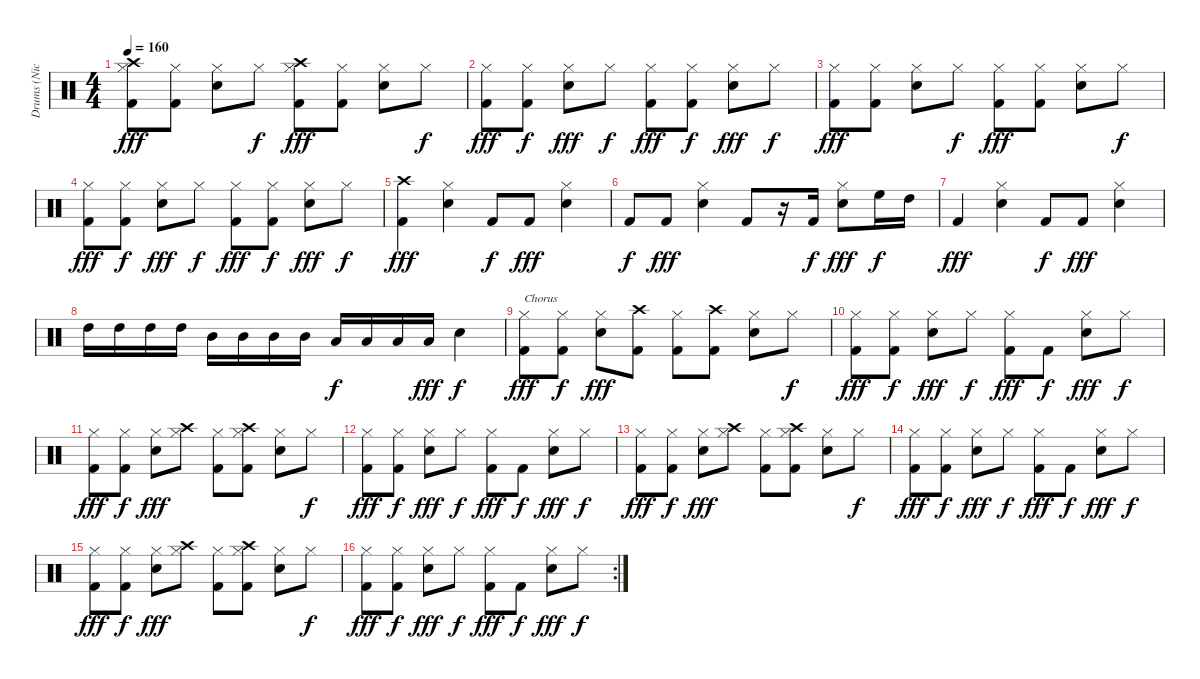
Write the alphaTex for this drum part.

\track ("Drums (Nicko)" "Drums (Nic") {instrument percussion}
\staff {score}
\articulation defaults
\ts (4 4)
\tempo 160
\clef neutral
\ks c
("Hi-Hat (closed)" "Kick (hit) 2" "Crash high (hit)").8{dy fff} ("Hi-Hat (closed)" "Kick (hit) 2").8 ("Hi-Hat (closed)" "Snare (hit) 2").8 "Hi-Hat (closed)".8{dy f} ("Hi-Hat (closed)" "Kick (hit) 2" "Crash high (hit)").8{dy fff} ("Hi-Hat (closed)" "Kick (hit) 2").8 ("Hi-Hat (closed)" "Snare (hit) 2").8 "Hi-Hat (closed)".8{dy f} |
("Hi-Hat (closed)" "Kick (hit) 2").8{dy fff} ("Hi-Hat (closed)" "Kick (hit) 2").8{dy f} ("Hi-Hat (closed)" "Snare (hit) 2").8{dy fff} "Hi-Hat (closed)".8{dy f} ("Hi-Hat (closed)" "Kick (hit) 2").8{dy fff} ("Hi-Hat (closed)" "Kick (hit) 2").8{dy f} ("Hi-Hat (closed)" "Snare (hit) 2").8{dy fff} "Hi-Hat (closed)".8{dy f} |
("Hi-Hat (closed)" "Kick (hit) 2").8{dy fff} ("Hi-Hat (closed)" "Kick (hit) 2").8 ("Hi-Hat (closed)" "Snare (hit) 2").8 "Hi-Hat (closed)".8{dy f} ("Hi-Hat (closed)" "Kick (hit) 2").8{dy fff} ("Hi-Hat (closed)" "Kick (hit) 2").8 ("Hi-Hat (closed)" "Snare (hit) 2").8 "Hi-Hat (closed)".8{dy f} |
("Hi-Hat (closed)" "Kick (hit) 2").8{dy fff} ("Hi-Hat (closed)" "Kick (hit) 2").8{dy f} ("Hi-Hat (closed)" "Snare (hit) 2").8{dy fff} "Hi-Hat (closed)".8{dy f} ("Hi-Hat (closed)" "Kick (hit) 2").8{dy fff} ("Hi-Hat (closed)" "Kick (hit) 2").8{dy f} ("Hi-Hat (closed)" "Snare (hit) 2").8{dy fff} "Hi-Hat (closed)".8{dy f} |
("Kick (hit) 2" "Crash high (hit)").4{dy fff} ("Hi-Hat (closed)" "Snare (hit) 2").4 "Kick (hit) 2".8{dy f} "Kick (hit) 2".8{dy fff} ("Hi-Hat (closed)" "Snare (hit) 2").4 |
"Kick (hit) 2".8{dy f} "Kick (hit) 2".8{dy fff} ("Hi-Hat (closed)" "Snare (hit) 2").4 "Kick (hit) 2".8 r.16 "Kick (hit) 2".16{dy f} ("Hi-Hat (closed)" "Snare (hit) 2").8{dy fff} "High Floor Tom (hit)".16{dy f} "High Tom (hit)".16 |
"Kick (hit) 2".4{dy fff} ("Hi-Hat (closed)" "Snare (hit) 2").4 "Kick (hit) 2".8{dy f} "Kick (hit) 2".8{dy fff} ("Hi-Hat (closed)" "Snare (hit) 2").4 |
"High Tom (hit)".16 "High Tom (hit)".16 "High Tom (hit)".16 "High Tom (hit)".16 "Mid Tom (hit)".16 "Mid Tom (hit)".16 "Mid Tom (hit)".16 "Mid Tom (hit)".16 "Low Tom (hit)".16{dy f} "Low Tom (hit)".16 "Low Tom (hit)".16 "Low Tom (hit)".16{dy fff} "Snare (hit) 2".4{dy f} |
("Hi-Hat (closed)" "Kick (hit) 2").8{txt "Chorus" dy fff} ("Hi-Hat (closed)" "Kick (hit) 2").8{dy f} ("Hi-Hat (closed)" "Snare (hit) 2").8{dy fff} ("Kick (hit) 2" "Crash high (hit)").8 ("Hi-Hat (closed)" "Kick (hit) 2").8 ("Kick (hit) 2" "Crash high (hit)").8 ("Hi-Hat (closed)" "Snare (hit) 2").8 "Hi-Hat (closed)".8{dy f} |
("Hi-Hat (closed)" "Kick (hit) 2").8{dy fff} ("Hi-Hat (closed)" "Kick (hit) 2").8{dy f} ("Hi-Hat (closed)" "Snare (hit) 2").8{dy fff} "Hi-Hat (closed)".8{dy f} ("Hi-Hat (closed)" "Kick (hit) 2").8{dy fff} "Kick (hit) 2".8{dy f} ("Hi-Hat (closed)" "Snare (hit) 2").8{dy fff} "Hi-Hat (closed)".8{dy f} |
("Hi-Hat (closed)" "Kick (hit) 2").8{dy fff} ("Hi-Hat (closed)" "Kick (hit) 2").8{dy f} ("Hi-Hat (closed)" "Snare (hit) 2").8{dy fff} ("Hi-Hat (closed)" "Crash high (hit)").8 ("Hi-Hat (closed)" "Kick (hit) 2").8 ("Hi-Hat (closed)" "Kick (hit) 2" "Crash high (hit)").8 ("Hi-Hat (closed)" "Snare (hit) 2").8 "Hi-Hat (closed)".8{dy f} |
("Hi-Hat (closed)" "Kick (hit) 2").8{dy fff} ("Hi-Hat (closed)" "Kick (hit) 2").8{dy f} ("Hi-Hat (closed)" "Snare (hit) 2").8{dy fff} "Hi-Hat (closed)".8{dy f} ("Hi-Hat (closed)" "Kick (hit) 2").8{dy fff} "Kick (hit) 2".8{dy f} ("Hi-Hat (closed)" "Snare (hit) 2").8{dy fff} "Hi-Hat (closed)".8{dy f} |
("Hi-Hat (closed)" "Kick (hit) 2").8{dy fff} ("Hi-Hat (closed)" "Kick (hit) 2").8{dy f} ("Hi-Hat (closed)" "Snare (hit) 2").8{dy fff} ("Hi-Hat (closed)" "Crash high (hit)").8 ("Hi-Hat (closed)" "Kick (hit) 2").8 ("Hi-Hat (closed)" "Kick (hit) 2" "Crash high (hit)").8 ("Hi-Hat (closed)" "Snare (hit) 2").8 "Hi-Hat (closed)".8{dy f} |
("Hi-Hat (closed)" "Kick (hit) 2").8{dy fff} ("Hi-Hat (closed)" "Kick (hit) 2").8{dy f} ("Hi-Hat (closed)" "Snare (hit) 2").8{dy fff} "Hi-Hat (closed)".8{dy f} ("Hi-Hat (closed)" "Kick (hit) 2").8{dy fff} "Kick (hit) 2".8{dy f} ("Hi-Hat (closed)" "Snare (hit) 2").8{dy fff} "Hi-Hat (closed)".8{dy f} |
("Hi-Hat (closed)" "Kick (hit) 2").8{dy fff} ("Hi-Hat (closed)" "Kick (hit) 2").8{dy f} ("Hi-Hat (closed)" "Snare (hit) 2").8{dy fff} ("Hi-Hat (closed)" "Crash high (hit)").8 ("Hi-Hat (closed)" "Kick (hit) 2").8 ("Hi-Hat (closed)" "Kick (hit) 2" "Crash high (hit)").8 ("Hi-Hat (closed)" "Snare (hit) 2").8 "Hi-Hat (closed)".8{dy f} |
\rc 2
("Hi-Hat (closed)" "Kick (hit) 2").8{dy fff} ("Hi-Hat (closed)" "Kick (hit) 2").8{dy f} ("Hi-Hat (closed)" "Snare (hit) 2").8{dy fff} "Hi-Hat (closed)".8{dy f} ("Hi-Hat (closed)" "Kick (hit) 2").8{dy fff} "Kick (hit) 2".8{dy f} ("Hi-Hat (closed)" "Snare (hit) 2").8{dy fff} "Hi-Hat (closed)".8{dy f}
